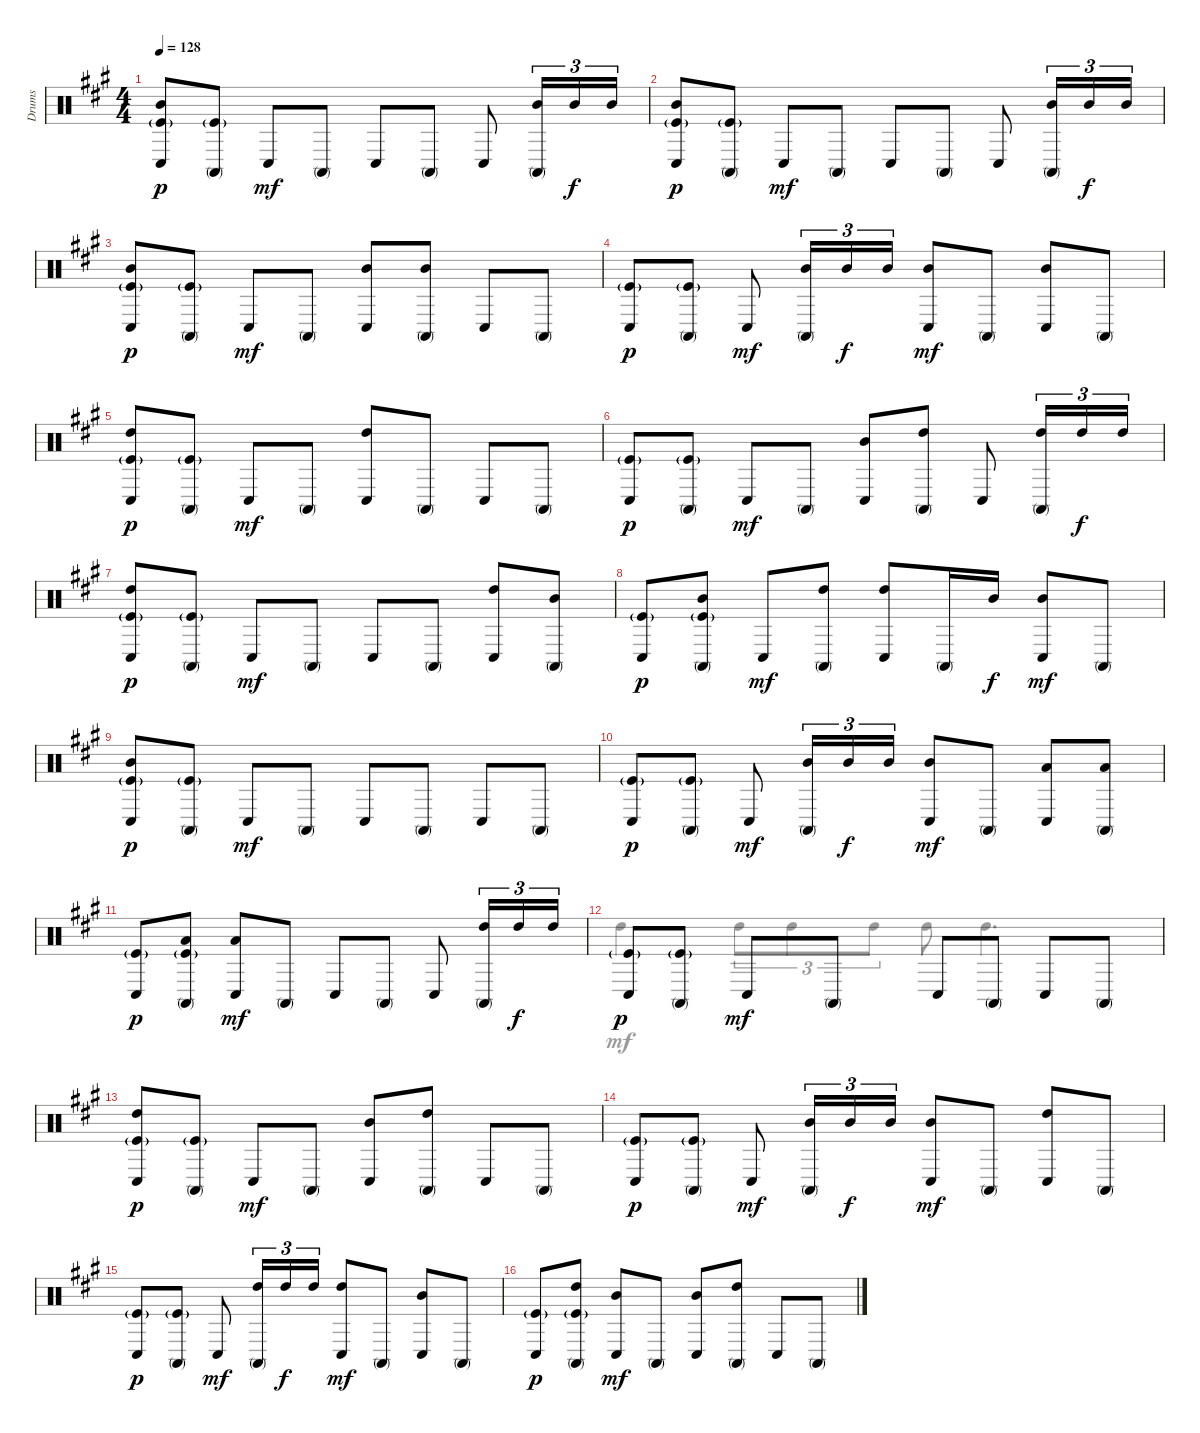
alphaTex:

\track ("Drums" "Drums") {instrument percussion}
\staff {score}
\articulation defaults
\voice
\ts (4 4)
\tempo 128
\clef neutral
\ks f#minor
("Mid Tom (hit)" "Conga low (hit)" "Kick (hit)"{g}).8{dy p} ("Conga high (mute)" "Kick (hit)"{g}).8 "Conga low (hit)".8{dy mf} "Conga high (mute)".8 "Conga low (hit)".8 "Conga high (mute)".8 "Conga low (hit)".8 ("Mid Tom (hit)" "Conga high (mute)").16{tu (3 2)} "Mid Tom (hit)".16{tu (3 2) dy f} "Mid Tom (hit)".16{tu (3 2)} |
("Mid Tom (hit)" "Conga low (hit)" "Kick (hit)"{g}).8{dy p} ("Conga high (mute)" "Kick (hit)"{g}).8 "Conga low (hit)".8{dy mf} "Conga high (mute)".8 "Conga low (hit)".8 "Conga high (mute)".8 "Conga low (hit)".8 ("Mid Tom (hit)" "Conga high (mute)").16{tu (3 2)} "Mid Tom (hit)".16{tu (3 2) dy f} "Mid Tom (hit)".16{tu (3 2)} |
("Mid Tom (hit)" "Conga low (hit)" "Kick (hit)"{g}).8{dy p} ("Conga high (mute)" "Kick (hit)"{g}).8 "Conga low (hit)".8{dy mf} "Conga high (mute)".8 ("Mid Tom (hit)" "Conga low (hit)").8 ("Mid Tom (hit)" "Conga high (mute)").8 "Conga low (hit)".8 "Conga high (mute)".8 |
("Conga low (hit)" "Kick (hit)"{g}).8{dy p} ("Conga high (mute)" "Kick (hit)"{g}).8 "Conga low (hit)".8{dy mf} ("Mid Tom (hit)" "Conga high (mute)").16{tu (3 2)} "Mid Tom (hit)".16{tu (3 2) dy f} "Mid Tom (hit)".16{tu (3 2)} ("Mid Tom (hit)" "Conga low (hit)").8{dy mf} "Conga high (mute)".8 ("Mid Tom (hit)" "Conga low (hit)").8 "Conga high (mute)".8 |
("High Tom (hit)" "Conga low (hit)" "Kick (hit)"{g}).8{dy p} ("Conga high (mute)" "Kick (hit)"{g}).8 "Conga low (hit)".8{dy mf} "Conga high (mute)".8 ("High Tom (hit)" "Conga low (hit)").8 "Conga high (mute)".8 "Conga low (hit)".8 "Conga high (mute)".8 |
("Conga low (hit)" "Kick (hit)"{g}).8{dy p} ("Conga high (mute)" "Kick (hit)"{g}).8 "Conga low (hit)".8{dy mf} "Conga high (mute)".8 ("Mid Tom (hit)" "Conga low (hit)").8 ("High Tom (hit)" "Conga high (mute)").8 "Conga low (hit)".8 ("High Tom (hit)" "Conga high (mute)").16{tu (3 2)} "High Tom (hit)".16{tu (3 2) dy f} "High Tom (hit)".16{tu (3 2)} |
("High Tom (hit)" "Conga low (hit)" "Kick (hit)"{g}).8{dy p} ("Conga high (mute)" "Kick (hit)"{g}).8 "Conga low (hit)".8{dy mf} "Conga high (mute)".8 "Conga low (hit)".8 "Conga high (mute)".8 ("High Tom (hit)" "Conga low (hit)").8 ("Mid Tom (hit)" "Conga high (mute)").8 |
("Conga low (hit)" "Kick (hit)"{g}).8{dy p} ("Mid Tom (hit)" "Conga high (mute)" "Kick (hit)"{g}).8 "Conga low (hit)".8{dy mf} ("High Tom (hit)" "Conga high (mute)").8 ("High Tom (hit)" "Conga low (hit)").8 "Conga high (mute)".16 "Mid Tom (hit)".16{dy f} ("Mid Tom (hit)" "Conga low (hit)").8{dy mf} "Conga high (mute)".8 |
("Mid Tom (hit)" "Conga low (hit)" "Kick (hit)"{g}).8{dy p} ("Conga high (mute)" "Kick (hit)"{g}).8 "Conga low (hit)".8{dy mf} "Conga high (mute)".8 "Conga low (hit)".8 "Conga high (mute)".8 "Conga low (hit)".8 "Conga high (mute)".8 |
("Conga low (hit)" "Kick (hit)"{g}).8{dy p} ("Conga high (mute)" "Kick (hit)"{g}).8 "Conga low (hit)".8{dy mf} ("Mid Tom (hit)" "Conga high (mute)").16{tu (3 2)} "Mid Tom (hit)".16{tu (3 2) dy f} "Mid Tom (hit)".16{tu (3 2)} ("Mid Tom (hit)" "Conga low (hit)").8{dy mf} "Conga high (mute)".8 ("Low Tom (hit)" "Conga low (hit)").8 ("Low Tom (hit)" "Conga high (mute)").8 |
("Conga low (hit)" "Kick (hit)"{g}).8{dy p} ("Low Tom (hit)" "Conga high (mute)" "Kick (hit)"{g}).8 ("Low Tom (hit)" "Conga low (hit)").8{dy mf} "Conga high (mute)".8 "Conga low (hit)".8 "Conga high (mute)".8 "Conga low (hit)".8 ("High Tom (hit)" "Conga high (mute)").16{tu (3 2)} "High Tom (hit)".16{tu (3 2) dy f} "High Tom (hit)".16{tu (3 2)} |
("Conga low (hit)" "Kick (hit)"{g}).8{dy p beam Up} ("Conga high (mute)" "Kick (hit)"{g}).8{beam Up} "Conga low (hit)".8{dy mf} "Conga high (mute)".8 "Conga low (hit)".8 "Conga high (mute)".8 "Conga low (hit)".8 "Conga high (mute)".8 |
("High Tom (hit)" "Conga low (hit)" "Kick (hit)"{g}).8{dy p} ("Conga high (mute)" "Kick (hit)"{g}).8 "Conga low (hit)".8{dy mf} "Conga high (mute)".8 ("Mid Tom (hit)" "Conga low (hit)").8 ("High Tom (hit)" "Conga high (mute)").8 "Conga low (hit)".8 "Conga high (mute)".8 |
("Conga low (hit)" "Kick (hit)"{g}).8{dy p} ("Conga high (mute)" "Kick (hit)"{g}).8 "Conga low (hit)".8{dy mf} ("Mid Tom (hit)" "Conga high (mute)").16{tu (3 2)} "Mid Tom (hit)".16{tu (3 2) dy f} "Mid Tom (hit)".16{tu (3 2)} ("Mid Tom (hit)" "Conga low (hit)").8{dy mf} "Conga high (mute)".8 ("High Tom (hit)" "Conga low (hit)").8 "Conga high (mute)".8 |
("Conga low (hit)" "Kick (hit)"{g}).8{dy p} ("Conga high (mute)" "Kick (hit)"{g}).8 "Conga low (hit)".8{dy mf} ("High Tom (hit)" "Conga high (mute)").16{tu (3 2)} "High Tom (hit)".16{tu (3 2) dy f} "High Tom (hit)".16{tu (3 2)} ("High Tom (hit)" "Conga low (hit)").8{dy mf} "Conga high (mute)".8 ("Mid Tom (hit)" "Conga low (hit)").8 "Conga high (mute)".8 |
("Conga low (hit)" "Kick (hit)"{g}).8{dy p} ("High Tom (hit)" "Conga high (mute)" "Kick (hit)"{g}).8 ("Mid Tom (hit)" "Conga low (hit)").8{dy mf} "Conga high (mute)".8 ("Mid Tom (hit)" "Conga low (hit)").8 ("High Tom (hit)" "Conga high (mute)").8 "Conga low (hit)".8 "Conga high (mute)".8
\voice
\clef neutral
\ottava regular
\simile none
\ks f#minor
|
|
|
|
|
|
|
|
|
|
|
"High Tom (hit)".4 "High Tom (hit)".8{tu (3 2)} "High Tom (hit)".8{tu (3 2)} "High Tom (hit)".8{tu (3 2)} "High Tom (hit)".8 "High Tom (hit)".4{d} |
|
|
|
